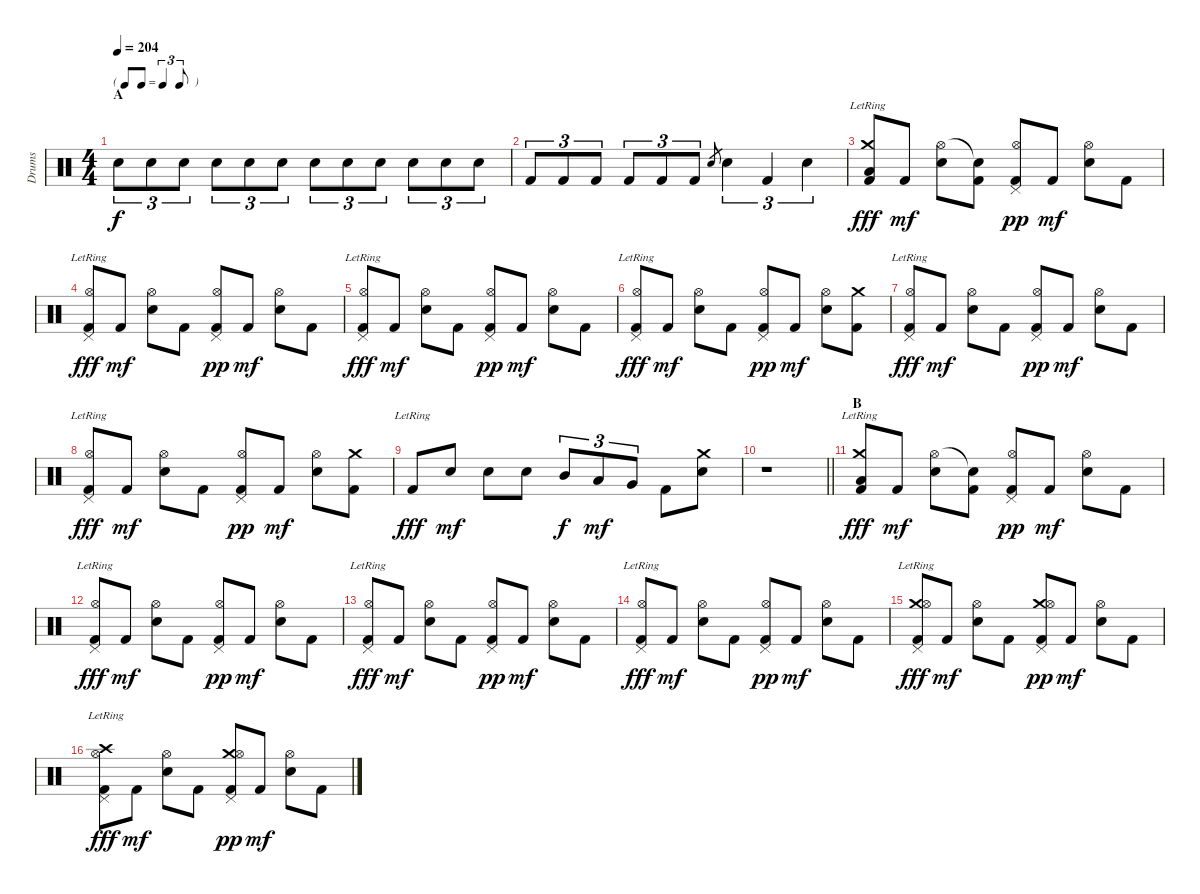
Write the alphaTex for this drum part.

\track ("Drums" "Drums") {instrument percussion}
\staff {score}
\articulation defaults
\ts (4 4)
\tf triplet8th
\section ("" "A")
\tempo 204
\clef neutral
\ks c "Electric Snare (hit)".8{tu (3 2) dy f} "Electric Snare (hit)".8{tu (3 2)} "Electric Snare (hit)".8{tu (3 2)} "Electric Snare (hit)".8{tu (3 2)} "Electric Snare (hit)".8{tu (3 2)} "Electric Snare (hit)".8{tu (3 2)} "Electric Snare (hit)".8{tu (3 2)} "Electric Snare (hit)".8{tu (3 2)} "Electric Snare (hit)".8{tu (3 2)} "Electric Snare (hit)".8{tu (3 2)} "Electric Snare (hit)".8{tu (3 2)} "Electric Snare (hit)".8{tu (3 2)}
|
"Kick (hit) 2".8{tu (3 2)} "Kick (hit) 2".8{tu (3 2)} "Kick (hit) 2".8{tu (3 2)} "Kick (hit) 2".8{tu (3 2)} "Kick (hit) 2".8{tu (3 2)} "Kick (hit) 2".8{tu (3 2)} "Electric Snare (hit)".8{gr} "Electric Snare (hit)".4{tu (3 2)} "Kick (hit) 2".4{tu (3 2)} "Electric Snare (hit)".4{tu (3 2)} |
("Crash medium (hit)" "Low Floor Tom (hit)" "Kick (hit) 2"{lr}).8{dy fff} "Kick (hit) 2".8{dy mf} ("Hi-Hat (open)" "Electric Snare (hit)").8 ("Snare (hit)"{t} "Kick (hit) 2").8 ("Pedal Hi-Hat (hit)" "Hi-Hat (open)" "Kick (hit) 2").8{dy pp} "Kick (hit) 2".8{dy mf} ("Hi-Hat (open)" "Electric Snare (hit)").8 "Kick (hit) 2".8 |
("Pedal Hi-Hat (hit)" "Hi-Hat (open)" "Kick (hit) 2"{lr}).8{dy fff} "Kick (hit) 2".8{dy mf} ("Hi-Hat (open)" "Electric Snare (hit)").8 "Kick (hit) 2".8 ("Pedal Hi-Hat (hit)" "Hi-Hat (open)" "Kick (hit) 2").8{dy pp} "Kick (hit) 2".8{dy mf} ("Hi-Hat (open)" "Electric Snare (hit)").8 "Kick (hit) 2".8 |
("Pedal Hi-Hat (hit)" "Hi-Hat (open)" "Kick (hit) 2"{lr}).8{dy fff} "Kick (hit) 2".8{dy mf} ("Hi-Hat (open)" "Electric Snare (hit)").8 "Kick (hit) 2".8 ("Pedal Hi-Hat (hit)" "Hi-Hat (open)" "Kick (hit) 2").8{dy pp} "Kick (hit) 2".8{dy mf} ("Hi-Hat (open)" "Electric Snare (hit)").8 "Kick (hit) 2".8 |
("Pedal Hi-Hat (hit)" "Hi-Hat (open)" "Kick (hit) 2"{lr}).8{dy fff} "Kick (hit) 2".8{dy mf} ("Hi-Hat (open)" "Electric Snare (hit)").8 "Kick (hit) 2".8 ("Pedal Hi-Hat (hit)" "Hi-Hat (open)" "Kick (hit) 2").8{dy pp} "Kick (hit) 2".8{dy mf} ("Hi-Hat (open)" "Electric Snare (hit)").8 ("Crash medium (hit)" "Kick (hit) 2").8 |
("Pedal Hi-Hat (hit)" "Hi-Hat (open)" "Kick (hit) 2"{lr}).8{dy fff} "Kick (hit) 2".8{dy mf} ("Hi-Hat (open)" "Electric Snare (hit)").8 "Kick (hit) 2".8 ("Pedal Hi-Hat (hit)" "Hi-Hat (open)" "Kick (hit) 2").8{dy pp} "Kick (hit) 2".8{dy mf} ("Hi-Hat (open)" "Electric Snare (hit)").8 "Kick (hit) 2".8 |
("Pedal Hi-Hat (hit)" "Hi-Hat (open)" "Kick (hit) 2"{lr}).8{dy fff} "Kick (hit) 2".8{dy mf} ("Hi-Hat (open)" "Electric Snare (hit)").8 "Kick (hit) 2".8 ("Pedal Hi-Hat (hit)" "Hi-Hat (open)" "Kick (hit) 2").8{dy pp} "Kick (hit) 2".8{dy mf} ("Hi-Hat (open)" "Electric Snare (hit)").8 ("Crash medium (hit)" "Kick (hit) 2").8 |
"Kick (hit) 2"{lr}.8{dy fff} "Electric Snare (hit)".8{dy mf} "Electric Snare (hit)".8 "Electric Snare (hit)".8 "Mid Tom (hit)".8{tu (3 2) dy f} "Low Tom (hit)".8{tu (3 2) dy mf} "Very Low Tom (hit)".8{tu (3 2)} "Kick (hit) 2".8 ("Crash medium (hit)" "Electric Snare (hit)").8 |
\barLineRight lightlight
r.1 |
\section ("" "B")
("Crash medium (hit)" "Low Floor Tom (hit)" "Kick (hit) 2"{lr}).8{dy fff} "Kick (hit) 2".8{dy mf} ("Hi-Hat (open)" "Electric Snare (hit)").8 ("Snare (hit)"{t} "Kick (hit) 2").8 ("Pedal Hi-Hat (hit)" "Hi-Hat (open)" "Kick (hit) 2").8{dy pp} "Kick (hit) 2".8{dy mf} ("Hi-Hat (open)" "Electric Snare (hit)").8 "Kick (hit) 2".8 |
("Pedal Hi-Hat (hit)" "Hi-Hat (open)" "Kick (hit) 2"{lr}).8{dy fff} "Kick (hit) 2".8{dy mf} ("Hi-Hat (open)" "Electric Snare (hit)").8 "Kick (hit) 2".8 ("Pedal Hi-Hat (hit)" "Hi-Hat (open)" "Kick (hit) 2").8{dy pp} "Kick (hit) 2".8{dy mf} ("Hi-Hat (open)" "Electric Snare (hit)").8 "Kick (hit) 2".8 |
("Pedal Hi-Hat (hit)" "Hi-Hat (open)" "Kick (hit) 2"{lr}).8{dy fff} "Kick (hit) 2".8{dy mf} ("Hi-Hat (open)" "Electric Snare (hit)").8 "Kick (hit) 2".8 ("Pedal Hi-Hat (hit)" "Hi-Hat (open)" "Kick (hit) 2").8{dy pp} "Kick (hit) 2".8{dy mf} ("Hi-Hat (open)" "Electric Snare (hit)").8 "Kick (hit) 2".8 |
("Pedal Hi-Hat (hit)" "Hi-Hat (open)" "Kick (hit) 2"{lr}).8{dy fff} "Kick (hit) 2".8{dy mf} ("Hi-Hat (open)" "Electric Snare (hit)").8 "Kick (hit) 2".8 ("Pedal Hi-Hat (hit)" "Hi-Hat (open)" "Kick (hit) 2").8{dy pp} "Kick (hit) 2".8{dy mf} ("Hi-Hat (open)" "Electric Snare (hit)").8 "Kick (hit) 2".8 |
("Crash medium (hit)" "Pedal Hi-Hat (hit)" "Hi-Hat (open)" "Kick (hit) 2"{lr}).8{dy fff} "Kick (hit) 2".8{dy mf} ("Hi-Hat (open)" "Electric Snare (hit)").8 "Kick (hit) 2".8 ("Crash medium (hit)" "Pedal Hi-Hat (hit)" "Hi-Hat (open)" "Kick (hit) 2").8{dy pp} "Kick (hit) 2".8{dy mf} ("Hi-Hat (open)" "Electric Snare (hit)").8 "Kick (hit) 2".8 |
("Crash high (hit)" "Pedal Hi-Hat (hit)" "Hi-Hat (open)" "Kick (hit) 2"{lr}).8{dy fff} "Kick (hit) 2".8{dy mf} ("Hi-Hat (open)" "Electric Snare (hit)").8 "Kick (hit) 2".8 ("Crash medium (hit)" "Pedal Hi-Hat (hit)" "Hi-Hat (open)" "Kick (hit) 2").8{dy pp} "Kick (hit) 2".8{dy mf} ("Hi-Hat (open)" "Electric Snare (hit)").8 "Kick (hit) 2".8
